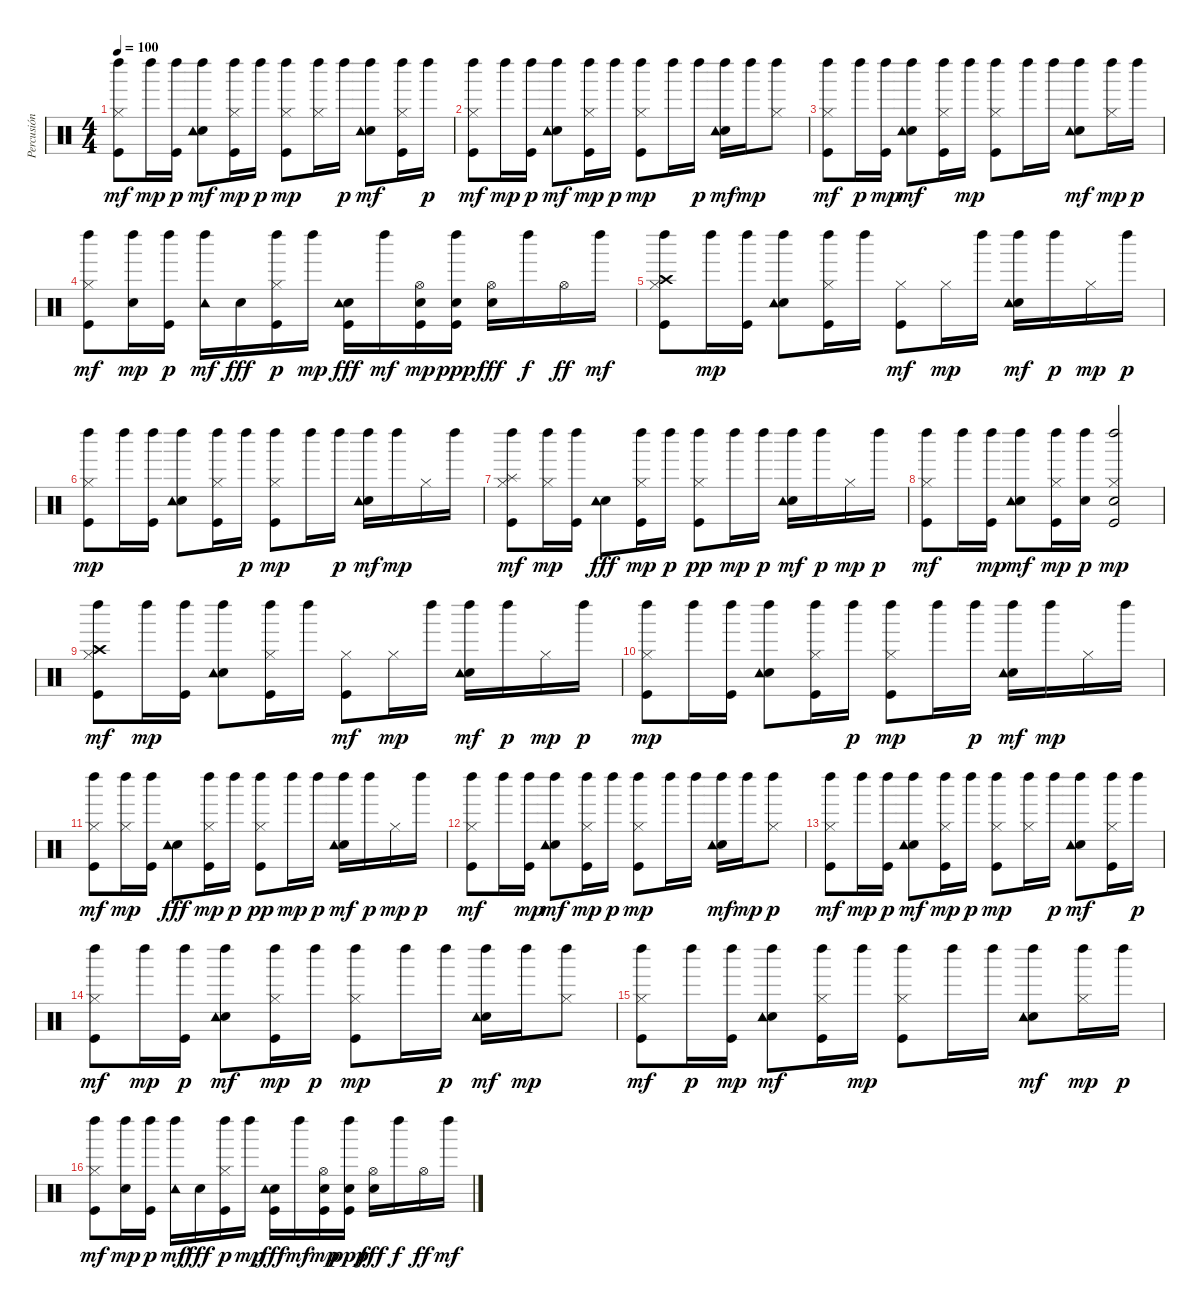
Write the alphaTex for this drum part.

\track ("Percusión" "Percusión") {instrument percussion}
\staff {score}
\articulation defaults
\ts (4 4)
\tempo 100
\clef neutral
\ks c
("Kick (hit)" "Hi-Hat (closed)" "Left Maraca (hit)").8{dy mf} "Left Maraca (hit)".16{dy mp} ("Kick (hit)" "Left Maraca (hit)").16{dy p} ("Snare (hit) 2" "Tambourine (hit)" "Left Maraca (hit)").8{dy mf} ("Kick (hit)" "Hi-Hat (closed)" "Left Maraca (hit)").16{dy mp} "Left Maraca (hit)".16{dy p} ("Kick (hit)" "Hi-Hat (closed)" "Left Maraca (hit)").8{dy mp} ("Hi-Hat (closed)" "Left Maraca (hit)").16 "Left Maraca (hit)".16{dy p} ("Snare (hit) 2" "Tambourine (hit)" "Left Maraca (hit)").8{dy mf} ("Kick (hit)" "Hi-Hat (closed)" "Left Maraca (hit)").16 "Left Maraca (hit)".16{dy p} |
("Kick (hit)" "Hi-Hat (closed)" "Left Maraca (hit)").8{dy mf} "Left Maraca (hit)".16{dy mp} ("Kick (hit)" "Left Maraca (hit)").16{dy p} ("Snare (hit) 2" "Tambourine (hit)" "Left Maraca (hit)").8{dy mf} ("Kick (hit)" "Hi-Hat (closed)" "Left Maraca (hit)").16{dy mp} "Left Maraca (hit)".16{dy p} ("Kick (hit)" "Hi-Hat (closed)" "Left Maraca (hit)").8{dy mp} "Left Maraca (hit)".16 "Left Maraca (hit)".16{dy p} ("Snare (hit) 2" "Tambourine (hit)" "Left Maraca (hit)").16{dy mf} "Left Maraca (hit)".16{dy mp} ("Hi-Hat (closed)" "Left Maraca (hit)").8 |
("Kick (hit)" "Hi-Hat (closed)" "Left Maraca (hit)").8{dy mf} "Left Maraca (hit)".16{dy p} ("Kick (hit)" "Left Maraca (hit)").16{dy mp} ("Snare (hit) 2" "Tambourine (hit)" "Left Maraca (hit)").8{dy mf} ("Kick (hit)" "Hi-Hat (closed)" "Left Maraca (hit)").16 "Left Maraca (hit)".16{dy mp} ("Kick (hit)" "Hi-Hat (closed)" "Left Maraca (hit)").8 "Left Maraca (hit)".16 "Left Maraca (hit)".16 ("Snare (hit) 2" "Tambourine (hit)" "Left Maraca (hit)").8{dy mf} ("Hi-Hat (closed)" "Left Maraca (hit)").16{dy mp} "Left Maraca (hit)".16{dy p} |
("Kick (hit)" "Hi-Hat (closed)" "Left Maraca (hit)").8{dy mf} ("Snare (hit) 2" "Left Maraca (hit)").16{dy mp} ("Kick (hit)" "Left Maraca (hit)").16{dy p} ("Tambourine (hit)" "Left Maraca (hit)").16{dy mf} "Snare (hit) 2".16{dy fff} ("Kick (hit)" "Hi-Hat (closed)" "Left Maraca (hit)").16{dy p} "Left Maraca (hit)".16{dy mp} ("Kick (hit)" "Snare (hit) 2" "Tambourine (hit)").16{dy fff} "Left Maraca (hit)".16{dy mf} ("Kick (hit)" "Snare (hit) 2" "Hi-Hat (open)").16{dy mp} ("Kick (hit)" "Snare (hit) 2" "Left Maraca (hit)").16{dy ppp} ("Snare (hit) 2" "Hi-Hat (open)").16{dy fff} "Left Maraca (hit)".16{dy f} "Hi-Hat (open)".16{dy ff} "Left Maraca (hit)".16{dy mf} |
("Kick (hit)" "Hi-Hat (closed)" "Crash high (hit)" "Left Maraca (hit)").8 "Left Maraca (hit)".16{dy mp} ("Kick (hit)" "Left Maraca (hit)").16 ("Snare (hit) 2" "Tambourine (hit)" "Left Maraca (hit)").8 ("Kick (hit)" "Hi-Hat (closed)" "Left Maraca (hit)").16 "Left Maraca (hit)".16 ("Kick (hit)" "Hi-Hat (closed)").8{dy mf} "Hi-Hat (closed)".16{dy mp} "Left Maraca (hit)".16 ("Snare (hit) 2" "Tambourine (hit)" "Left Maraca (hit)").16{dy mf} "Left Maraca (hit)".16{dy p} "Hi-Hat (closed)".16{dy mp} "Left Maraca (hit)".16{dy p} |
("Kick (hit)" "Hi-Hat (closed)" "Left Maraca (hit)").8{dy mp} "Left Maraca (hit)".16 ("Kick (hit)" "Left Maraca (hit)").16 ("Snare (hit) 2" "Tambourine (hit)" "Left Maraca (hit)").8 ("Kick (hit)" "Hi-Hat (closed)" "Left Maraca (hit)").16 "Left Maraca (hit)".16{dy p} ("Kick (hit)" "Hi-Hat (closed)" "Left Maraca (hit)").8{dy mp} "Left Maraca (hit)".16 "Left Maraca (hit)".16{dy p} ("Snare (hit) 2" "Tambourine (hit)" "Left Maraca (hit)").16{dy mf} "Left Maraca (hit)".16{dy mp} "Hi-Hat (closed)".16 "Left Maraca (hit)".16 |
("Kick (hit)" "Hi-Hat (closed)" "Splash (hit)" "Left Maraca (hit)").8{dy mf} ("Hi-Hat (closed)" "Left Maraca (hit)").16{dy mp} ("Kick (hit)" "Left Maraca (hit)").16 ("Snare (hit) 2" "Tambourine (hit)").8{dy fff} ("Kick (hit)" "Hi-Hat (closed)" "Left Maraca (hit)").16{dy mp} "Left Maraca (hit)".16{dy p} ("Kick (hit)" "Hi-Hat (closed)" "Left Maraca (hit)").8{dy pp} "Left Maraca (hit)".16{dy mp} "Left Maraca (hit)".16{dy p} ("Snare (hit) 2" "Tambourine (hit)" "Left Maraca (hit)").16{dy mf} "Left Maraca (hit)".16{dy p} "Hi-Hat (closed)".16{dy mp} "Left Maraca (hit)".16{dy p} |
("Kick (hit)" "Hi-Hat (closed)" "Left Maraca (hit)").8{dy mf} "Left Maraca (hit)".16 ("Kick (hit)" "Left Maraca (hit)").16{dy mp} ("Snare (hit) 2" "Tambourine (hit)" "Left Maraca (hit)").8{dy mf} ("Kick (hit)" "Hi-Hat (closed)" "Left Maraca (hit)").16{dy mp} ("Left Maraca (hit)" "Snare (hit) 2").16{dy p} ("Kick (hit)" "Snare (hit) 2" "Hi-Hat (closed)" "Left Maraca (hit)").2{dy mp} |
("Kick (hit)" "Hi-Hat (closed)" "Crash high (hit)" "Left Maraca (hit)").8{dy mf} "Left Maraca (hit)".16{dy mp} ("Kick (hit)" "Left Maraca (hit)").16 ("Snare (hit) 2" "Tambourine (hit)" "Left Maraca (hit)").8 ("Kick (hit)" "Hi-Hat (closed)" "Left Maraca (hit)").16 "Left Maraca (hit)".16 ("Kick (hit)" "Hi-Hat (closed)").8{dy mf} "Hi-Hat (closed)".16{dy mp} "Left Maraca (hit)".16 ("Snare (hit) 2" "Tambourine (hit)" "Left Maraca (hit)").16{dy mf} "Left Maraca (hit)".16{dy p} "Hi-Hat (closed)".16{dy mp} "Left Maraca (hit)".16{dy p} |
("Kick (hit)" "Hi-Hat (closed)" "Left Maraca (hit)").8{dy mp} "Left Maraca (hit)".16 ("Kick (hit)" "Left Maraca (hit)").16 ("Snare (hit) 2" "Tambourine (hit)" "Left Maraca (hit)").8 ("Kick (hit)" "Hi-Hat (closed)" "Left Maraca (hit)").16 "Left Maraca (hit)".16{dy p} ("Kick (hit)" "Hi-Hat (closed)" "Left Maraca (hit)").8{dy mp} "Left Maraca (hit)".16 "Left Maraca (hit)".16{dy p} ("Snare (hit) 2" "Tambourine (hit)" "Left Maraca (hit)").16{dy mf} "Left Maraca (hit)".16{dy mp} "Hi-Hat (closed)".16 "Left Maraca (hit)".16 |
("Kick (hit)" "Hi-Hat (closed)" "Left Maraca (hit)").8{dy mf} ("Hi-Hat (closed)" "Left Maraca (hit)").16{dy mp} ("Kick (hit)" "Left Maraca (hit)").16 ("Snare (hit) 2" "Tambourine (hit)").8{dy fff} ("Kick (hit)" "Hi-Hat (closed)" "Left Maraca (hit)").16{dy mp} "Left Maraca (hit)".16{dy p} ("Kick (hit)" "Hi-Hat (closed)" "Left Maraca (hit)").8{dy pp} "Left Maraca (hit)".16{dy mp} "Left Maraca (hit)".16{dy p} ("Snare (hit) 2" "Tambourine (hit)" "Left Maraca (hit)").16{dy mf} "Left Maraca (hit)".16{dy p} "Hi-Hat (closed)".16{dy mp} "Left Maraca (hit)".16{dy p} |
("Kick (hit)" "Hi-Hat (closed)" "Left Maraca (hit)").8{dy mf} "Left Maraca (hit)".16 ("Kick (hit)" "Left Maraca (hit)").16{dy mp} ("Snare (hit) 2" "Tambourine (hit)" "Left Maraca (hit)").8{dy mf} ("Kick (hit)" "Hi-Hat (closed)" "Left Maraca (hit)").16{dy mp} "Left Maraca (hit)".16{dy p} ("Kick (hit)" "Hi-Hat (closed)" "Left Maraca (hit)").8{dy mp} "Left Maraca (hit)".16 "Left Maraca (hit)".16 ("Snare (hit) 2" "Tambourine (hit)" "Left Maraca (hit)").16{dy mf} "Left Maraca (hit)".16{dy mp} ("Hi-Hat (closed)" "Left Maraca (hit)").8{dy p} |
("Kick (hit)" "Hi-Hat (closed)" "Left Maraca (hit)").8{dy mf} "Left Maraca (hit)".16{dy mp} ("Kick (hit)" "Left Maraca (hit)").16{dy p} ("Snare (hit) 2" "Tambourine (hit)" "Left Maraca (hit)").8{dy mf} ("Kick (hit)" "Hi-Hat (closed)" "Left Maraca (hit)").16{dy mp} "Left Maraca (hit)".16{dy p} ("Kick (hit)" "Hi-Hat (closed)" "Left Maraca (hit)").8{dy mp} ("Hi-Hat (closed)" "Left Maraca (hit)").16 "Left Maraca (hit)".16{dy p} ("Snare (hit) 2" "Tambourine (hit)" "Left Maraca (hit)").8{dy mf} ("Kick (hit)" "Hi-Hat (closed)" "Left Maraca (hit)").16 "Left Maraca (hit)".16{dy p} |
("Kick (hit)" "Hi-Hat (closed)" "Left Maraca (hit)").8{dy mf} "Left Maraca (hit)".16{dy mp} ("Kick (hit)" "Left Maraca (hit)").16{dy p} ("Snare (hit) 2" "Tambourine (hit)" "Left Maraca (hit)").8{dy mf} ("Kick (hit)" "Hi-Hat (closed)" "Left Maraca (hit)").16{dy mp} "Left Maraca (hit)".16{dy p} ("Kick (hit)" "Hi-Hat (closed)" "Left Maraca (hit)").8{dy mp} "Left Maraca (hit)".16 "Left Maraca (hit)".16{dy p} ("Snare (hit) 2" "Tambourine (hit)" "Left Maraca (hit)").16{dy mf} "Left Maraca (hit)".16{dy mp} ("Hi-Hat (closed)" "Left Maraca (hit)").8 |
("Kick (hit)" "Hi-Hat (closed)" "Left Maraca (hit)").8{dy mf} "Left Maraca (hit)".16{dy p} ("Kick (hit)" "Left Maraca (hit)").16{dy mp} ("Snare (hit) 2" "Tambourine (hit)" "Left Maraca (hit)").8{dy mf} ("Kick (hit)" "Hi-Hat (closed)" "Left Maraca (hit)").16 "Left Maraca (hit)".16{dy mp} ("Kick (hit)" "Hi-Hat (closed)" "Left Maraca (hit)").8 "Left Maraca (hit)".16 "Left Maraca (hit)".16 ("Snare (hit) 2" "Tambourine (hit)" "Left Maraca (hit)").8{dy mf} ("Hi-Hat (closed)" "Left Maraca (hit)").16{dy mp} "Left Maraca (hit)".16{dy p} |
("Kick (hit)" "Hi-Hat (closed)" "Left Maraca (hit)").8{dy mf} ("Snare (hit) 2" "Left Maraca (hit)").16{dy mp} ("Kick (hit)" "Left Maraca (hit)").16{dy p} ("Tambourine (hit)" "Left Maraca (hit)").16{dy mf} "Snare (hit) 2".16{dy fff} ("Kick (hit)" "Hi-Hat (closed)" "Left Maraca (hit)").16{dy p} "Left Maraca (hit)".16{dy mp} ("Kick (hit)" "Snare (hit) 2" "Tambourine (hit)").16{dy fff} "Left Maraca (hit)".16{dy mf} ("Kick (hit)" "Snare (hit) 2" "Hi-Hat (open)").16{dy mp} ("Kick (hit)" "Snare (hit) 2" "Left Maraca (hit)").16{dy ppp} ("Snare (hit) 2" "Hi-Hat (open)").16{dy fff} "Left Maraca (hit)".16{dy f} "Hi-Hat (open)".16{dy ff} "Left Maraca (hit)".16{dy mf}
